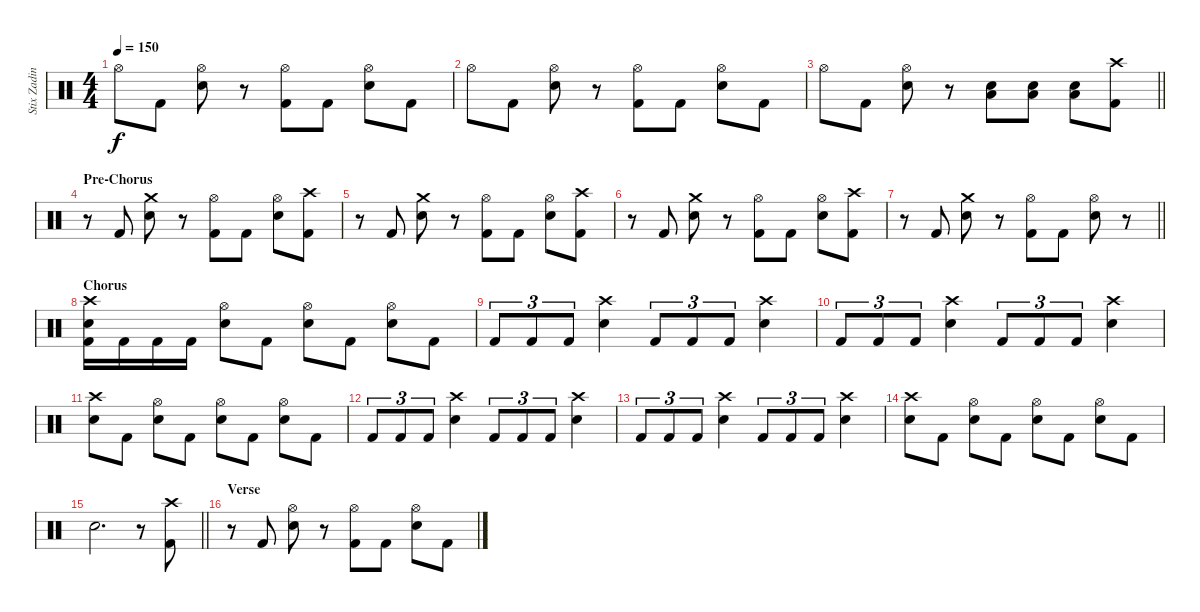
\track ("Stix Zadinia" "Stix Zadin") {instrument percussion}
\staff {score}
\articulation defaults
\ts (4 4)
\tempo 150
\clef neutral
\ks c "Hi-Hat (open)".8{dy f} "Kick (hit) 2".8
("Hi-Hat (open)" "Electric Snare (hit)").8 r.8 ("Hi-Hat (open)" "Kick (hit) 2").8 "Kick (hit) 2".8 ("Hi-Hat (open)" "Electric Snare (hit)").8 "Kick (hit) 2".8 |
"Hi-Hat (open)".8 "Kick (hit) 2".8 ("Hi-Hat (open)" "Electric Snare (hit)").8 r.8 ("Hi-Hat (open)" "Kick (hit) 2").8 "Kick (hit) 2".8 ("Hi-Hat (open)" "Electric Snare (hit)").8 "Kick (hit) 2".8 |
\barLineRight lightlight "Hi-Hat (open)".8 "Kick (hit) 2".8
("Hi-Hat (open)" "Electric Snare (hit)").8 r.8 ("Low Floor Tom (hit)" "Electric Snare (hit)").8 ("Low Floor Tom (hit)" "Electric Snare (hit)").8 ("Low Floor Tom (hit)" "Electric Snare (hit)").8 ("Crash high (hit)" "Kick (hit) 2").8 |
\section ("" "Pre-Chorus")
r.8 "Kick (hit) 2".8 ("Crash medium (hit)" "Electric Snare (hit)").8 r.8 ("Hi-Hat (open)" "Kick (hit) 2").8 "Kick (hit) 2".8 ("Hi-Hat (open)" "Electric Snare (hit)").8 ("Crash high (hit)" "Kick (hit) 2").8 |
r.8 "Kick (hit) 2".8 ("Crash medium (hit)" "Electric Snare (hit)").8 r.8 ("Hi-Hat (open)" "Kick (hit) 2").8 "Kick (hit) 2".8 ("Hi-Hat (open)" "Electric Snare (hit)").8 ("Crash high (hit)" "Kick (hit) 2").8 |
r.8 "Kick (hit) 2".8 ("Crash medium (hit)" "Electric Snare (hit)").8 r.8 ("Hi-Hat (open)" "Kick (hit) 2").8 "Kick (hit) 2".8 ("Hi-Hat (open)" "Electric Snare (hit)").8 ("Crash high (hit)" "Kick (hit) 2").8 |
\barLineRight lightlight
r.8 "Kick (hit) 2".8 ("Crash medium (hit)" "Electric Snare (hit)").8 r.8 ("Hi-Hat (open)" "Kick (hit) 2").8 "Kick (hit) 2".8 ("Hi-Hat (open)" "Electric Snare (hit)").8 r.8 |
\section ("" "Chorus")
("Crash high (hit)" "Electric Snare (hit)" "Kick (hit) 2").16 "Kick (hit) 2".16 "Kick (hit) 2".16 "Kick (hit) 2".16 ("Hi-Hat (open)" "Electric Snare (hit)").8 "Kick (hit) 2".8 ("Hi-Hat (open)" "Electric Snare (hit)").8 "Kick (hit) 2".8 ("Hi-Hat (open)" "Electric Snare (hit)").8 "Kick (hit) 2".8 |
"Kick (hit) 2".8{tu (3 2)} "Kick (hit) 2".8{tu (3 2)} "Kick (hit) 2".8{tu (3 2)} ("Crash high (hit)" "Electric Snare (hit)").4 "Kick (hit) 2".8{tu (3 2)} "Kick (hit) 2".8{tu (3 2)} "Kick (hit) 2".8{tu (3 2)} ("Crash high (hit)" "Electric Snare (hit)").4 |
"Kick (hit) 2".8{tu (3 2)} "Kick (hit) 2".8{tu (3 2)} "Kick (hit) 2".8{tu (3 2)} ("Crash high (hit)" "Electric Snare (hit)").4 "Kick (hit) 2".8{tu (3 2)} "Kick (hit) 2".8{tu (3 2)} "Kick (hit) 2".8{tu (3 2)} ("Crash high (hit)" "Electric Snare (hit)").4 |
("Crash high (hit)" "Electric Snare (hit)").8 "Kick (hit) 2".8 ("Hi-Hat (open)" "Electric Snare (hit)").8 "Kick (hit) 2".8 ("Hi-Hat (open)" "Electric Snare (hit)").8 "Kick (hit) 2".8 ("Hi-Hat (open)" "Electric Snare (hit)").8 "Kick (hit) 2".8 |
"Kick (hit) 2".8{tu (3 2)} "Kick (hit) 2".8{tu (3 2)} "Kick (hit) 2".8{tu (3 2)} ("Crash high (hit)" "Electric Snare (hit)").4 "Kick (hit) 2".8{tu (3 2)} "Kick (hit) 2".8{tu (3 2)} "Kick (hit) 2".8{tu (3 2)} ("Crash high (hit)" "Electric Snare (hit)").4 |
"Kick (hit) 2".8{tu (3 2)} "Kick (hit) 2".8{tu (3 2)} "Kick (hit) 2".8{tu (3 2)} ("Crash high (hit)" "Electric Snare (hit)").4 "Kick (hit) 2".8{tu (3 2)} "Kick (hit) 2".8{tu (3 2)} "Kick (hit) 2".8{tu (3 2)} ("Crash high (hit)" "Electric Snare (hit)").4 |
("Crash high (hit)" "Electric Snare (hit)").8 "Kick (hit) 2".8 ("Hi-Hat (open)" "Electric Snare (hit)").8 "Kick (hit) 2".8 ("Hi-Hat (open)" "Electric Snare (hit)").8 "Kick (hit) 2".8 ("Hi-Hat (open)" "Electric Snare (hit)").8 "Kick (hit) 2".8 |
\barLineRight lightlight "Electric Snare (hit)".2{d}
r.8 ("Crash high (hit)" "Kick (hit) 2").8 |
\section ("" "Verse")
r.8 "Kick (hit) 2".8 ("Hi-Hat (open)" "Electric Snare (hit)").8 r.8 ("Hi-Hat (open)" "Kick (hit) 2").8 "Kick (hit) 2".8 ("Hi-Hat (open)" "Electric Snare (hit)").8 "Kick (hit) 2".8
